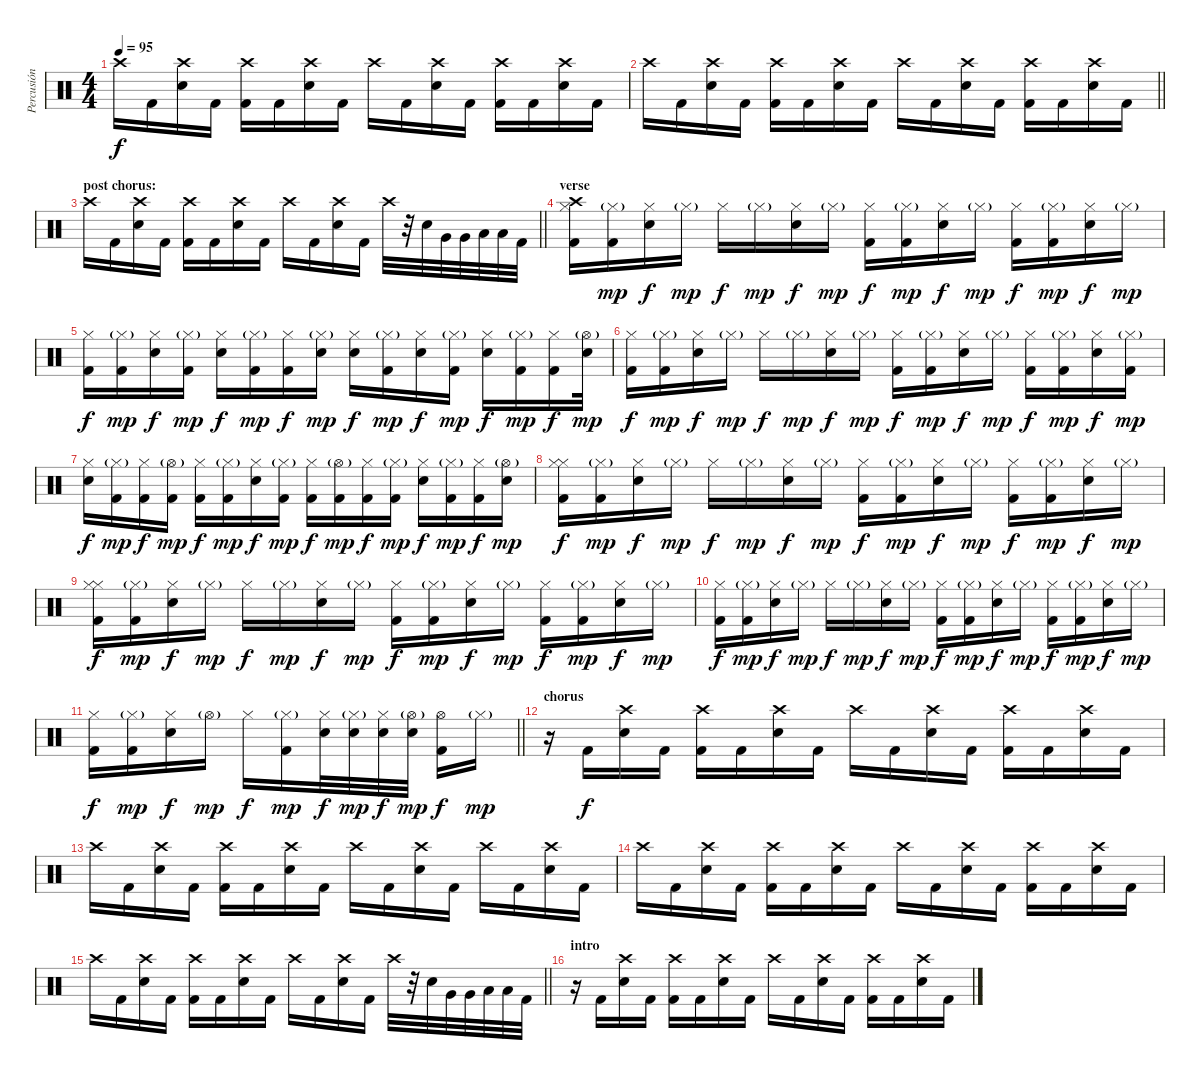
\track ("Percusión" "Percusión") {instrument percussion}
\staff {score}
\articulation defaults
\ts (4 4)
\tempo 95
\clef neutral
\ks c "Crash high (hit)".16{dy f} "Kick (hit) 2".16
("Crash high (hit)" "Electric Snare (hit)").16 "Kick (hit) 2".16 ("Crash high (hit)" "Kick (hit) 2").16 "Kick (hit) 2".16 ("Crash high (hit)" "Electric Snare (hit)").16 "Kick (hit) 2".16 "Crash high (hit)".16 "Kick (hit) 2".16 ("Crash high (hit)" "Electric Snare (hit)").16 "Kick (hit) 2".16 ("Crash high (hit)" "Kick (hit) 2").16 "Kick (hit) 2".16 ("Crash high (hit)" "Electric Snare (hit)").16 "Kick (hit) 2".16 |
\barLineRight lightlight "Crash high (hit)".16 "Kick (hit) 2".16
("Crash high (hit)" "Electric Snare (hit)").16 "Kick (hit) 2".16 ("Crash high (hit)" "Kick (hit) 2").16 "Kick (hit) 2".16 ("Crash high (hit)" "Electric Snare (hit)").16 "Kick (hit) 2".16 "Crash high (hit)".16 "Kick (hit) 2".16 ("Crash high (hit)" "Electric Snare (hit)").16 "Kick (hit) 2".16 ("Crash high (hit)" "Kick (hit) 2").16 "Kick (hit) 2".16 ("Crash high (hit)" "Electric Snare (hit)").16 "Kick (hit) 2".16 |
\section ("" "post chorus:")
\barLineRight lightlight "Crash high (hit)".16 "Kick (hit) 2".16
("Crash high (hit)" "Electric Snare (hit)").16 "Kick (hit) 2".16 ("Crash high (hit)" "Kick (hit) 2").16 "Kick (hit) 2".16 ("Crash high (hit)" "Electric Snare (hit)").16 "Kick (hit) 2".16 "Crash high (hit)".16 "Kick (hit) 2".16 ("Crash high (hit)" "Electric Snare (hit)").16 "Kick (hit) 2".16 "Crash high (hit)".32 r.32 "Electric Snare (hit)".32 "Very Low Tom (hit)".32 "Very Low Tom (hit)".32 "Low Floor Tom (hit)".32 "Low Floor Tom (hit)".32 "Kick (hit) 2".32 |
\section ("" "verse")
("Crash high (hit)" "Hi-Hat (closed)" "Kick (hit) 2").16 ("Hi-Hat (closed)"{g} "Kick (hit) 2").16{dy mp} ("Hi-Hat (closed)" "Electric Snare (hit)").16{dy f} "Hi-Hat (closed)"{g}.16{dy mp} "Hi-Hat (closed)".16{dy f} "Hi-Hat (closed)"{g}.16{dy mp} ("Hi-Hat (closed)" "Electric Snare (hit)").16{dy f} "Hi-Hat (closed)"{g}.16{dy mp} ("Hi-Hat (closed)" "Kick (hit) 2").16{dy f} ("Hi-Hat (closed)"{g} "Kick (hit) 2").16{dy mp} ("Hi-Hat (closed)" "Electric Snare (hit)").16{dy f} "Hi-Hat (closed)"{g}.16{dy mp} ("Hi-Hat (closed)" "Kick (hit) 2").16{dy f} ("Hi-Hat (closed)"{g} "Kick (hit) 2").16{dy mp} ("Hi-Hat (closed)" "Electric Snare (hit)").16{dy f} "Hi-Hat (closed)"{g}.16{dy mp} |
("Hi-Hat (closed)" "Kick (hit) 2").16{dy f} ("Hi-Hat (closed)"{g} "Kick (hit) 2").16{dy mp} ("Hi-Hat (closed)" "Electric Snare (hit)").16{dy f} ("Hi-Hat (closed)"{g} "Kick (hit) 2").16{dy mp} ("Hi-Hat (closed)" "Electric Snare (hit)").16{dy f} ("Hi-Hat (closed)"{g} "Kick (hit) 2").16{dy mp} ("Hi-Hat (closed)" "Kick (hit) 2").16{dy f} ("Hi-Hat (closed)"{g} "Electric Snare (hit)").16{dy mp} ("Hi-Hat (closed)" "Electric Snare (hit)").16{dy f} ("Hi-Hat (closed)"{g} "Kick (hit) 2").16{dy mp} ("Hi-Hat (closed)" "Electric Snare (hit)").16{dy f} ("Hi-Hat (closed)"{g} "Kick (hit) 2").16{dy mp} ("Hi-Hat (closed)" "Electric Snare (hit)").16{dy f} ("Hi-Hat (closed)"{g} "Kick (hit) 2").16{dy mp} ("Hi-Hat (closed)" "Kick (hit) 2").16{dy f} ("Hi-Hat (open)"{g} "Electric Snare (hit)").32{dy mp} |
("Hi-Hat (closed)" "Kick (hit) 2").16{dy f} ("Hi-Hat (closed)"{g} "Kick (hit) 2").16{dy mp} ("Hi-Hat (closed)" "Electric Snare (hit)").16{dy f} "Hi-Hat (closed)"{g}.16{dy mp} "Hi-Hat (closed)".16{dy f} "Hi-Hat (closed)"{g}.16{dy mp} ("Hi-Hat (closed)" "Electric Snare (hit)").16{dy f} "Hi-Hat (closed)"{g}.16{dy mp} ("Hi-Hat (closed)" "Kick (hit) 2").16{dy f} ("Hi-Hat (closed)"{g} "Kick (hit) 2").16{dy mp} ("Hi-Hat (closed)" "Electric Snare (hit)").16{dy f} "Hi-Hat (closed)"{g}.16{dy mp} ("Hi-Hat (closed)" "Kick (hit) 2").16{dy f} ("Hi-Hat (closed)"{g} "Kick (hit) 2").16{dy mp} ("Hi-Hat (closed)" "Electric Snare (hit)").16{dy f} ("Hi-Hat (closed)"{g} "Kick (hit) 2").16{dy mp} |
("Hi-Hat (closed)" "Electric Snare (hit)").16{dy f} ("Hi-Hat (closed)"{g} "Kick (hit) 2").16{dy mp} ("Hi-Hat (closed)" "Kick (hit) 2").16{dy f} ("Hi-Hat (open)"{g} "Kick (hit) 2").16{dy mp} ("Hi-Hat (closed)" "Kick (hit) 2").16{dy f} ("Hi-Hat (closed)"{g} "Kick (hit) 2").16{dy mp} ("Hi-Hat (closed)" "Electric Snare (hit)").16{dy f} ("Hi-Hat (closed)"{g} "Kick (hit) 2").16{dy mp} ("Hi-Hat (closed)" "Kick (hit) 2").16{dy f} ("Hi-Hat (open)"{g} "Kick (hit) 2").16{dy mp} ("Hi-Hat (closed)" "Kick (hit) 2").16{dy f} ("Hi-Hat (closed)"{g} "Kick (hit) 2").16{dy mp} ("Hi-Hat (closed)" "Electric Snare (hit)").16{dy f} ("Hi-Hat (closed)"{g} "Kick (hit) 2").16{dy mp} ("Hi-Hat (closed)" "Kick (hit) 2").16{dy f} ("Hi-Hat (open)"{g} "Electric Snare (hit)").16{dy mp} |
("Hi-Hat (closed)" "Hi-Hat (closed)" "Kick (hit) 2").16{dy f} ("Hi-Hat (closed)"{g} "Kick (hit) 2").16{dy mp} ("Hi-Hat (closed)" "Electric Snare (hit)").16{dy f} "Hi-Hat (closed)"{g}.16{dy mp} "Hi-Hat (closed)".16{dy f} "Hi-Hat (closed)"{g}.16{dy mp} ("Hi-Hat (closed)" "Electric Snare (hit)").16{dy f} "Hi-Hat (closed)"{g}.16{dy mp} ("Hi-Hat (closed)" "Kick (hit) 2").16{dy f} ("Hi-Hat (closed)"{g} "Kick (hit) 2").16{dy mp} ("Hi-Hat (closed)" "Electric Snare (hit)").16{dy f} "Hi-Hat (closed)"{g}.16{dy mp} ("Hi-Hat (closed)" "Kick (hit) 2").16{dy f} ("Hi-Hat (closed)"{g} "Kick (hit) 2").16{dy mp} ("Hi-Hat (closed)" "Electric Snare (hit)").16{dy f} "Hi-Hat (closed)"{g}.16{dy mp} |
("Hi-Hat (closed)" "Hi-Hat (closed)" "Kick (hit) 2").16{dy f} ("Hi-Hat (closed)"{g} "Kick (hit) 2").16{dy mp} ("Hi-Hat (closed)" "Electric Snare (hit)").16{dy f} "Hi-Hat (closed)"{g}.16{dy mp} "Hi-Hat (closed)".16{dy f} "Hi-Hat (closed)"{g}.16{dy mp} ("Hi-Hat (closed)" "Electric Snare (hit)").16{dy f} "Hi-Hat (closed)"{g}.16{dy mp} ("Hi-Hat (closed)" "Kick (hit) 2").16{dy f} ("Hi-Hat (closed)"{g} "Kick (hit) 2").16{dy mp} ("Hi-Hat (closed)" "Electric Snare (hit)").16{dy f} "Hi-Hat (closed)"{g}.16{dy mp} ("Hi-Hat (closed)" "Kick (hit) 2").16{dy f} ("Hi-Hat (closed)"{g} "Kick (hit) 2").16{dy mp} ("Hi-Hat (closed)" "Electric Snare (hit)").16{dy f} "Hi-Hat (closed)"{g}.16{dy mp} |
("Hi-Hat (closed)" "Kick (hit) 2").16{dy f} ("Hi-Hat (closed)"{g} "Kick (hit) 2").16{dy mp} ("Hi-Hat (closed)" "Electric Snare (hit)").16{dy f} "Hi-Hat (closed)"{g}.16{dy mp} "Hi-Hat (closed)".16{dy f} "Hi-Hat (closed)"{g}.16{dy mp} ("Hi-Hat (closed)" "Electric Snare (hit)").16{dy f} "Hi-Hat (closed)"{g}.16{dy mp} ("Hi-Hat (closed)" "Kick (hit) 2").16{dy f} ("Hi-Hat (closed)"{g} "Kick (hit) 2").16{dy mp} ("Hi-Hat (closed)" "Electric Snare (hit)").16{dy f} "Hi-Hat (closed)"{g}.16{dy mp} ("Hi-Hat (closed)" "Kick (hit) 2").16{dy f} ("Hi-Hat (closed)"{g} "Kick (hit) 2").16{dy mp} ("Hi-Hat (closed)" "Electric Snare (hit)").16{dy f} "Hi-Hat (closed)"{g}.16{dy mp} |
\barLineRight lightlight
("Hi-Hat (closed)" "Kick (hit) 2").16{dy f} ("Hi-Hat (closed)"{g} "Kick (hit) 2").16{dy mp} ("Hi-Hat (closed)" "Electric Snare (hit)").16{dy f} "Hi-Hat (open)"{g}.16{dy mp} "Hi-Hat (closed)".16{dy f} ("Hi-Hat (closed)"{g} "Kick (hit) 2").16{dy mp} ("Hi-Hat (closed)" "Electric Snare (hit)").32{dy f} ("Hi-Hat (closed)"{g} "Electric Snare (hit)").32{dy mp} ("Hi-Hat (closed)" "Electric Snare (hit)").32{dy f} ("Hi-Hat (open)"{g} "Electric Snare (hit)").32{dy mp} ("Hi-Hat (open)" "Kick (hit) 2").16{dy f} "Hi-Hat (closed)"{g}.16{dy mp} |
\section ("" "chorus")
r.16 "Kick (hit) 2".16{dy f} ("Crash high (hit)" "Electric Snare (hit)").16 "Kick (hit) 2".16 ("Crash high (hit)" "Kick (hit) 2").16 "Kick (hit) 2".16 ("Crash high (hit)" "Electric Snare (hit)").16 "Kick (hit) 2".16 "Crash high (hit)".16 "Kick (hit) 2".16 ("Crash high (hit)" "Electric Snare (hit)").16 "Kick (hit) 2".16 ("Crash high (hit)" "Kick (hit) 2").16 "Kick (hit) 2".16 ("Crash high (hit)" "Electric Snare (hit)").16 "Kick (hit) 2".16 |
"Crash high (hit)".16 "Kick (hit) 2".16 ("Crash high (hit)" "Electric Snare (hit)").16 "Kick (hit) 2".16 ("Crash high (hit)" "Kick (hit) 2").16 "Kick (hit) 2".16 ("Crash high (hit)" "Electric Snare (hit)").16 "Kick (hit) 2".16 "Crash high (hit)".16 "Kick (hit) 2".16 ("Crash high (hit)" "Electric Snare (hit)").16 "Kick (hit) 2".16 "Crash high (hit)".16 "Kick (hit) 2".16 ("Crash high (hit)" "Electric Snare (hit)").16 "Kick (hit) 2".16 |
"Crash high (hit)".16 "Kick (hit) 2".16 ("Crash high (hit)" "Electric Snare (hit)").16 "Kick (hit) 2".16 ("Crash high (hit)" "Kick (hit) 2").16 "Kick (hit) 2".16 ("Crash high (hit)" "Electric Snare (hit)").16 "Kick (hit) 2".16 "Crash high (hit)".16 "Kick (hit) 2".16 ("Crash high (hit)" "Electric Snare (hit)").16 "Kick (hit) 2".16 ("Crash high (hit)" "Kick (hit) 2").16 "Kick (hit) 2".16 ("Crash high (hit)" "Electric Snare (hit)").16 "Kick (hit) 2".16 |
\barLineRight lightlight "Crash high (hit)".16 "Kick (hit) 2".16
("Crash high (hit)" "Electric Snare (hit)").16 "Kick (hit) 2".16 ("Crash high (hit)" "Kick (hit) 2").16 "Kick (hit) 2".16 ("Crash high (hit)" "Electric Snare (hit)").16 "Kick (hit) 2".16 "Crash high (hit)".16 "Kick (hit) 2".16 ("Crash high (hit)" "Electric Snare (hit)").16 "Kick (hit) 2".16 "Crash high (hit)".32 r.32 "Electric Snare (hit)".32 "Very Low Tom (hit)".32 "Very Low Tom (hit)".32 "Low Floor Tom (hit)".32 "Low Floor Tom (hit)".32 "Kick (hit) 2".32 |
\section ("" "intro")
r.16 "Kick (hit) 2".16 ("Crash high (hit)" "Electric Snare (hit)").16 "Kick (hit) 2".16 ("Crash high (hit)" "Kick (hit) 2").16 "Kick (hit) 2".16 ("Crash high (hit)" "Electric Snare (hit)").16 "Kick (hit) 2".16 "Crash high (hit)".16 "Kick (hit) 2".16 ("Crash high (hit)" "Electric Snare (hit)").16 "Kick (hit) 2".16 ("Crash high (hit)" "Kick (hit) 2").16 "Kick (hit) 2".16 ("Crash high (hit)" "Electric Snare (hit)").16 "Kick (hit) 2".16
